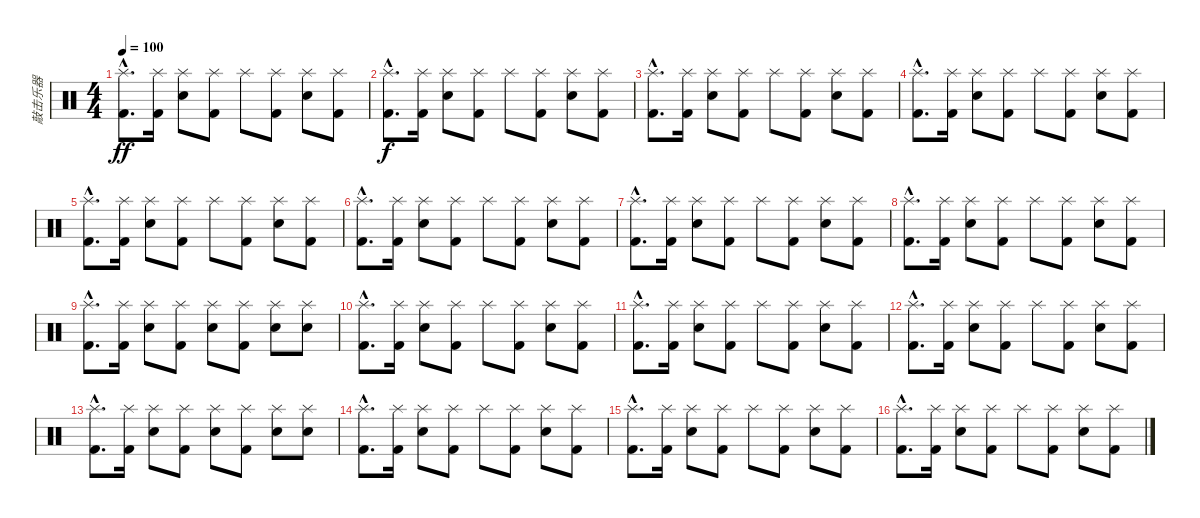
\track ("敲击乐器" "敲击乐器") {instrument percussion}
\staff {score}
\articulation defaults
\ts (4 4)
\tempo 100
\clef neutral
\ks c
("Kick (hit) 2"{hac} "Splash (hit)"{hac}).8{d dy ff} ("Kick (hit) 2" "Splash (hit)").16 ("Electric Snare (hit)" "Splash (hit)").8 ("Kick (hit) 2" "Splash (hit)").8 "Splash (hit)".8 ("Kick (hit) 2" "Splash (hit)").8 ("Electric Snare (hit)" "Splash (hit)").8 ("Kick (hit) 2" "Splash (hit)").8 |
("Kick (hit) 2"{hac} "Splash (hit)"{hac}).8{d dy f} ("Kick (hit) 2" "Splash (hit)").16 ("Electric Snare (hit)" "Splash (hit)").8 ("Kick (hit) 2" "Splash (hit)").8 "Splash (hit)".8 ("Kick (hit) 2" "Splash (hit)").8 ("Electric Snare (hit)" "Splash (hit)").8 ("Kick (hit) 2" "Splash (hit)").8 |
("Kick (hit) 2"{hac} "Splash (hit)"{hac}).8{d} ("Kick (hit) 2" "Splash (hit)").16 ("Electric Snare (hit)" "Splash (hit)").8 ("Kick (hit) 2" "Splash (hit)").8 "Splash (hit)".8 ("Kick (hit) 2" "Splash (hit)").8 ("Electric Snare (hit)" "Splash (hit)").8 ("Kick (hit) 2" "Splash (hit)").8 |
("Kick (hit) 2"{hac} "Splash (hit)"{hac}).8{d} ("Kick (hit) 2" "Splash (hit)").16 ("Electric Snare (hit)" "Splash (hit)").8 ("Kick (hit) 2" "Splash (hit)").8 "Splash (hit)".8 ("Kick (hit) 2" "Splash (hit)").8 ("Electric Snare (hit)" "Splash (hit)").8 ("Kick (hit) 2" "Splash (hit)").8 |
("Kick (hit) 2"{hac} "Splash (hit)"{hac}).8{d} ("Kick (hit) 2" "Splash (hit)").16 ("Electric Snare (hit)" "Splash (hit)").8 ("Kick (hit) 2" "Splash (hit)").8 "Splash (hit)".8 ("Kick (hit) 2" "Splash (hit)").8 ("Electric Snare (hit)" "Splash (hit)").8 ("Kick (hit) 2" "Splash (hit)").8 |
("Kick (hit) 2"{hac} "Splash (hit)"{hac}).8{d} ("Kick (hit) 2" "Splash (hit)").16 ("Electric Snare (hit)" "Splash (hit)").8 ("Kick (hit) 2" "Splash (hit)").8 "Splash (hit)".8 ("Kick (hit) 2" "Splash (hit)").8 ("Electric Snare (hit)" "Splash (hit)").8 ("Kick (hit) 2" "Splash (hit)").8 |
("Kick (hit) 2"{hac} "Splash (hit)"{hac}).8{d} ("Kick (hit) 2" "Splash (hit)").16 ("Electric Snare (hit)" "Splash (hit)").8 ("Kick (hit) 2" "Splash (hit)").8 "Splash (hit)".8 ("Kick (hit) 2" "Splash (hit)").8 ("Electric Snare (hit)" "Splash (hit)").8 ("Kick (hit) 2" "Splash (hit)").8 |
("Kick (hit) 2"{hac} "Splash (hit)"{hac}).8{d} ("Kick (hit) 2" "Splash (hit)").16 ("Electric Snare (hit)" "Splash (hit)").8 ("Kick (hit) 2" "Splash (hit)").8 "Splash (hit)".8 ("Kick (hit) 2" "Splash (hit)").8 ("Electric Snare (hit)" "Splash (hit)").8 ("Kick (hit) 2" "Splash (hit)").8 |
("Kick (hit) 2"{hac} "Splash (hit)"{hac}).8{d} ("Kick (hit) 2" "Splash (hit)").16 ("Electric Snare (hit)" "Splash (hit)").8 ("Kick (hit) 2" "Splash (hit)").8 ("Electric Snare (hit)" "Splash (hit)").8 ("Kick (hit) 2" "Splash (hit)").8 ("Electric Snare (hit)" "Splash (hit)").8 ("Electric Snare (hit)" "Splash (hit)").8 |
("Kick (hit) 2"{hac} "Splash (hit)"{hac}).8{d} ("Kick (hit) 2" "Splash (hit)").16 ("Electric Snare (hit)" "Splash (hit)").8 ("Kick (hit) 2" "Splash (hit)").8 "Splash (hit)".8 ("Kick (hit) 2" "Splash (hit)").8 ("Electric Snare (hit)" "Splash (hit)").8 ("Kick (hit) 2" "Splash (hit)").8 |
("Kick (hit) 2"{hac} "Splash (hit)"{hac}).8{d} ("Kick (hit) 2" "Splash (hit)").16 ("Electric Snare (hit)" "Splash (hit)").8 ("Kick (hit) 2" "Splash (hit)").8 "Splash (hit)".8 ("Kick (hit) 2" "Splash (hit)").8 ("Electric Snare (hit)" "Splash (hit)").8 ("Kick (hit) 2" "Splash (hit)").8 |
("Kick (hit) 2"{hac} "Splash (hit)"{hac}).8{d} ("Kick (hit) 2" "Splash (hit)").16 ("Electric Snare (hit)" "Splash (hit)").8 ("Kick (hit) 2" "Splash (hit)").8 "Splash (hit)".8 ("Kick (hit) 2" "Splash (hit)").8 ("Electric Snare (hit)" "Splash (hit)").8 ("Kick (hit) 2" "Splash (hit)").8 |
("Kick (hit) 2"{hac} "Splash (hit)"{hac}).8{d} ("Kick (hit) 2" "Splash (hit)").16 ("Electric Snare (hit)" "Splash (hit)").8 ("Kick (hit) 2" "Splash (hit)").8 ("Electric Snare (hit)" "Splash (hit)").8 ("Kick (hit) 2" "Splash (hit)").8 ("Electric Snare (hit)" "Splash (hit)").8 ("Electric Snare (hit)" "Splash (hit)").8 |
("Kick (hit) 2"{hac} "Splash (hit)"{hac}).8{d} ("Kick (hit) 2" "Splash (hit)").16 ("Electric Snare (hit)" "Splash (hit)").8 ("Kick (hit) 2" "Splash (hit)").8 "Splash (hit)".8 ("Kick (hit) 2" "Splash (hit)").8 ("Electric Snare (hit)" "Splash (hit)").8 ("Kick (hit) 2" "Splash (hit)").8 |
("Kick (hit) 2"{hac} "Splash (hit)"{hac}).8{d} ("Kick (hit) 2" "Splash (hit)").16 ("Electric Snare (hit)" "Splash (hit)").8 ("Kick (hit) 2" "Splash (hit)").8 "Splash (hit)".8 ("Kick (hit) 2" "Splash (hit)").8 ("Electric Snare (hit)" "Splash (hit)").8 ("Kick (hit) 2" "Splash (hit)").8 |
("Kick (hit) 2"{hac} "Splash (hit)"{hac}).8{d} ("Kick (hit) 2" "Splash (hit)").16 ("Electric Snare (hit)" "Splash (hit)").8 ("Kick (hit) 2" "Splash (hit)").8 "Splash (hit)".8 ("Kick (hit) 2" "Splash (hit)").8 ("Electric Snare (hit)" "Splash (hit)").8 ("Kick (hit) 2" "Splash (hit)").8
